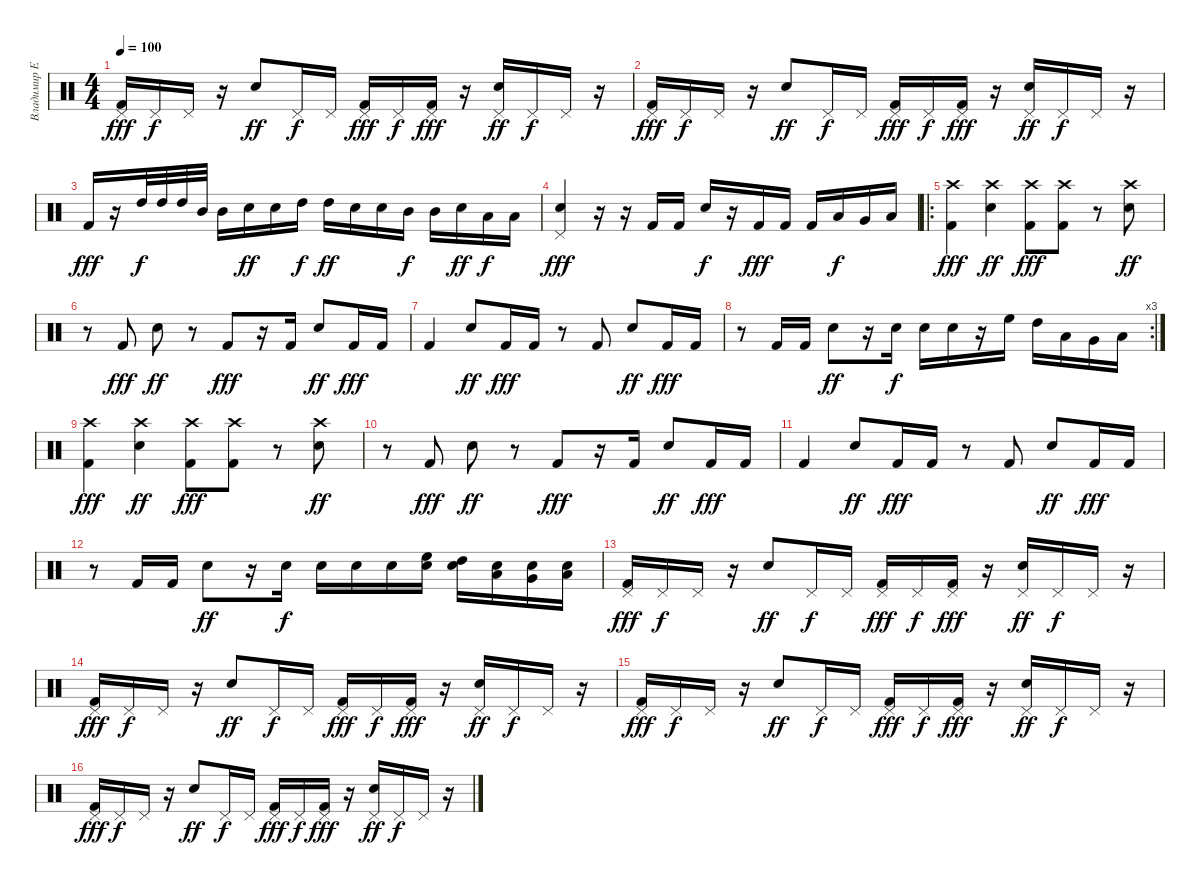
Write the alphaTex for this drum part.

\track ("Владимир Ермаков" "Владимир Е") {instrument percussion}
\staff {score}
\articulation defaults
\ts (4 4)
\tempo 100
\clef neutral
\ks c
("Kick (hit) 2" "Pedal Hi-Hat (hit)").16{dy fff} "Pedal Hi-Hat (hit)".16{dy f} "Pedal Hi-Hat (hit)".16 r.16 "Electric Snare (hit)".8{dy ff} "Pedal Hi-Hat (hit)".16{dy f} "Pedal Hi-Hat (hit)".16 ("Kick (hit) 2" "Pedal Hi-Hat (hit)").16{dy fff} "Pedal Hi-Hat (hit)".16{dy f} ("Kick (hit) 2" "Pedal Hi-Hat (hit)").16{dy fff} r.16 ("Electric Snare (hit)" "Pedal Hi-Hat (hit)").16{dy ff} "Pedal Hi-Hat (hit)".16{dy f} "Pedal Hi-Hat (hit)".16 r.16 |
("Kick (hit) 2" "Pedal Hi-Hat (hit)").16{dy fff} "Pedal Hi-Hat (hit)".16{dy f} "Pedal Hi-Hat (hit)".16 r.16 "Electric Snare (hit)".8{dy ff} "Pedal Hi-Hat (hit)".16{dy f} "Pedal Hi-Hat (hit)".16 ("Kick (hit) 2" "Pedal Hi-Hat (hit)").16{dy fff} "Pedal Hi-Hat (hit)".16{dy f} ("Kick (hit) 2" "Pedal Hi-Hat (hit)").16{dy fff} r.16 ("Electric Snare (hit)" "Pedal Hi-Hat (hit)").16{dy ff} "Pedal Hi-Hat (hit)".16{dy f} "Pedal Hi-Hat (hit)".16 r.16 |
"Kick (hit) 2".16{dy fff} r.16 "High Tom (hit)".32{dy f} "High Tom (hit)".32 "High Tom (hit)".32 "Mid Tom (hit)".32 "Mid Tom (hit)".16 "Electric Snare (hit)".16{dy ff} "Electric Snare (hit)".16 "High Tom (hit)".16{dy f} "High Tom (hit)".16{dy ff} "Electric Snare (hit)".16 "Electric Snare (hit)".16 "Mid Tom (hit)".16{dy f} "Mid Tom (hit)".16 "Electric Snare (hit)".16{dy ff} "Low Tom (hit)".16{dy f} "Low Tom (hit)".16 |
("Electric Snare (hit)" "Pedal Hi-Hat (hit)").4{dy fff} r.16 r.16 "Kick (hit) 2".16 "Kick (hit) 2".16 "Electric Snare (hit)".16{dy f} r.16 "Kick (hit) 2".16{dy fff} "Kick (hit) 2".16 "Kick (hit) 2".16 "Low Tom (hit)".16{dy f} "Very Low Tom (hit)".16 "Low Floor Tom (hit)".16 |
\ro
("Kick (hit) 2" "Crash high (hit)").4{dy fff} ("Electric Snare (hit)" "Crash high (hit)").4{dy ff} ("Kick (hit) 2" "Crash high (hit)").8{dy fff} ("Kick (hit) 2" "Crash high (hit)").8 r.8 ("Electric Snare (hit)" "Crash high (hit)").8{dy ff} |
r.8 "Kick (hit) 2".8{dy fff} "Electric Snare (hit)".8{dy ff} r.8 "Kick (hit) 2".8{dy fff} r.16 "Kick (hit) 2".16 "Electric Snare (hit)".8{dy ff} "Kick (hit) 2".16{dy fff} "Kick (hit) 2".16 |
"Kick (hit) 2".4 "Electric Snare (hit)".8{dy ff} "Kick (hit) 2".16{dy fff} "Kick (hit) 2".16 r.8 "Kick (hit) 2".8 "Electric Snare (hit)".8{dy ff} "Kick (hit) 2".16{dy fff} "Kick (hit) 2".16 |
\rc 3
r.8 "Kick (hit) 2".16 "Kick (hit) 2".16 "Electric Snare (hit)".8{dy ff} r.16 "Electric Snare (hit)".16{dy f} "Electric Snare (hit)".16 "Electric Snare (hit)".16 r.16 "High Floor Tom (hit)".16 "High Tom (hit)".16 "Low Tom (hit)".16 "Very Low Tom (hit)".16 "Low Floor Tom (hit)".16 |
("Kick (hit) 2" "Crash high (hit)").4{dy fff} ("Electric Snare (hit)" "Crash high (hit)").4{dy ff} ("Kick (hit) 2" "Crash high (hit)").8{dy fff} ("Kick (hit) 2" "Crash high (hit)").8 r.8 ("Electric Snare (hit)" "Crash high (hit)").8{dy ff} |
r.8 "Kick (hit) 2".8{dy fff} "Electric Snare (hit)".8{dy ff} r.8 "Kick (hit) 2".8{dy fff} r.16 "Kick (hit) 2".16 "Electric Snare (hit)".8{dy ff} "Kick (hit) 2".16{dy fff} "Kick (hit) 2".16 |
"Kick (hit) 2".4 "Electric Snare (hit)".8{dy ff} "Kick (hit) 2".16{dy fff} "Kick (hit) 2".16 r.8 "Kick (hit) 2".8 "Electric Snare (hit)".8{dy ff} "Kick (hit) 2".16{dy fff} "Kick (hit) 2".16 |
r.8 "Kick (hit) 2".16 "Kick (hit) 2".16 "Electric Snare (hit)".8{dy ff} r.16 "Electric Snare (hit)".16{dy f} "Electric Snare (hit)".16 "Electric Snare (hit)".16 "Electric Snare (hit)".16 ("High Floor Tom (hit)" "Electric Snare (hit)").16 ("High Tom (hit)" "Electric Snare (hit)").16 ("Low Tom (hit)" "Electric Snare (hit)").16 ("Very Low Tom (hit)" "Electric Snare (hit)").16 ("Low Floor Tom (hit)" "Electric Snare (hit)").16 |
("Kick (hit) 2" "Pedal Hi-Hat (hit)").16{dy fff} "Pedal Hi-Hat (hit)".16{dy f} "Pedal Hi-Hat (hit)".16 r.16 "Electric Snare (hit)".8{dy ff} "Pedal Hi-Hat (hit)".16{dy f} "Pedal Hi-Hat (hit)".16 ("Kick (hit) 2" "Pedal Hi-Hat (hit)").16{dy fff} "Pedal Hi-Hat (hit)".16{dy f} ("Kick (hit) 2" "Pedal Hi-Hat (hit)").16{dy fff} r.16 ("Electric Snare (hit)" "Pedal Hi-Hat (hit)").16{dy ff} "Pedal Hi-Hat (hit)".16{dy f} "Pedal Hi-Hat (hit)".16 r.16 |
("Kick (hit) 2" "Pedal Hi-Hat (hit)").16{dy fff} "Pedal Hi-Hat (hit)".16{dy f} "Pedal Hi-Hat (hit)".16 r.16 "Electric Snare (hit)".8{dy ff} "Pedal Hi-Hat (hit)".16{dy f} "Pedal Hi-Hat (hit)".16 ("Kick (hit) 2" "Pedal Hi-Hat (hit)").16{dy fff} "Pedal Hi-Hat (hit)".16{dy f} ("Kick (hit) 2" "Pedal Hi-Hat (hit)").16{dy fff} r.16 ("Electric Snare (hit)" "Pedal Hi-Hat (hit)").16{dy ff} "Pedal Hi-Hat (hit)".16{dy f} "Pedal Hi-Hat (hit)".16 r.16 |
("Kick (hit) 2" "Pedal Hi-Hat (hit)").16{dy fff} "Pedal Hi-Hat (hit)".16{dy f} "Pedal Hi-Hat (hit)".16 r.16 "Electric Snare (hit)".8{dy ff} "Pedal Hi-Hat (hit)".16{dy f} "Pedal Hi-Hat (hit)".16 ("Kick (hit) 2" "Pedal Hi-Hat (hit)").16{dy fff} "Pedal Hi-Hat (hit)".16{dy f} ("Kick (hit) 2" "Pedal Hi-Hat (hit)").16{dy fff} r.16 ("Electric Snare (hit)" "Pedal Hi-Hat (hit)").16{dy ff} "Pedal Hi-Hat (hit)".16{dy f} "Pedal Hi-Hat (hit)".16 r.16 |
("Kick (hit) 2" "Pedal Hi-Hat (hit)").16{dy fff} "Pedal Hi-Hat (hit)".16{dy f} "Pedal Hi-Hat (hit)".16 r.16 "Electric Snare (hit)".8{dy ff} "Pedal Hi-Hat (hit)".16{dy f} "Pedal Hi-Hat (hit)".16 ("Kick (hit) 2" "Pedal Hi-Hat (hit)").16{dy fff} "Pedal Hi-Hat (hit)".16{dy f} ("Kick (hit) 2" "Pedal Hi-Hat (hit)").16{dy fff} r.16 ("Electric Snare (hit)" "Pedal Hi-Hat (hit)").16{dy ff} "Pedal Hi-Hat (hit)".16{dy f} "Pedal Hi-Hat (hit)".16 r.16
